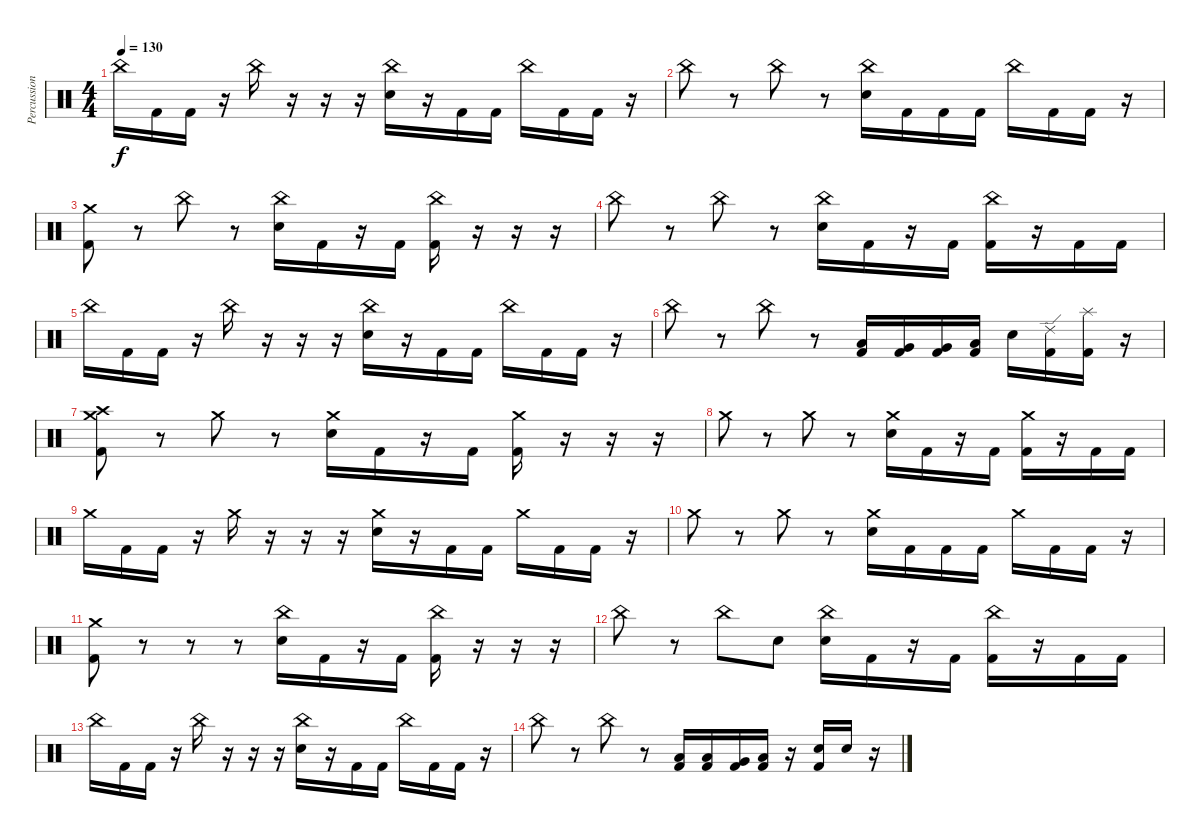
\track ("Percussion" "Percussion") {instrument percussion}
\staff {score}
\articulation defaults
\ts (4 4)
\tempo 130
\clef neutral
\ks c "China (hit)".16{dy f} "Kick (hit) 2".16 "Kick (hit) 2".16
r.16 "China (hit)".16 r.16 r.16 r.16 ("China (hit)" "Electric Snare (hit)").16 r.16 "Kick (hit) 2".16 "Kick (hit) 2".16 "China (hit)".16 "Kick (hit) 2".16 "Kick (hit) 2".16 r.16 |
"China (hit)".8 r.8 "China (hit)".8 r.8 ("China (hit)" "Electric Snare (hit)").16 "Kick (hit) 2".16 "Kick (hit) 2".16 "Kick (hit) 2".16 "China (hit)".16 "Kick (hit) 2".16 "Kick (hit) 2".16 r.16 |
("Crash medium (hit)" "Kick (hit) 2").8 r.8 "China (hit)".8 r.8 ("China (hit)" "Electric Snare (hit)").16 "Kick (hit) 2".16 r.16 "Kick (hit) 2".16 ("China (hit)" "Kick (hit) 2").16 r.16 r.16 r.16 |
"China (hit)".8 r.8 "China (hit)".8 r.8 ("China (hit)" "Electric Snare (hit)").16 "Kick (hit) 2".16 r.16 "Kick (hit) 2".16 ("China (hit)" "Kick (hit) 2").16 r.16 "Kick (hit) 2".16 "Kick (hit) 2".16 |
"China (hit)".16 "Kick (hit) 2".16 "Kick (hit) 2".16 r.16 "China (hit)".16 r.16 r.16 r.16 ("China (hit)" "Electric Snare (hit)").16 r.16 "Kick (hit) 2".16 "Kick (hit) 2".16 "China (hit)".16 "Kick (hit) 2".16 "Kick (hit) 2".16 r.16 |
"China (hit)".8 r.8 "China (hit)".8 r.8 ("Low Tom (hit)" "Kick (hit) 2").16 ("Very Low Tom (hit)" "Kick (hit) 2").16 ("Very Low Tom (hit)" "Kick (hit) 2").16 ("Low Floor Tom (hit)" "Kick (hit) 2").16 "Electric Snare (hit)".16 ("Ride (edge) 2" "Kick (hit) 2").16 ("Splash (hit)" "Kick (hit) 2").16 r.16 |
("Crash high (hit)" "Crash medium (hit)" "Kick (hit) 2").8 r.8 "Crash medium (hit)".8 r.8 ("Crash medium (hit)" "Electric Snare (hit)").16 "Kick (hit) 2".16 r.16 "Kick (hit) 2".16 ("Crash medium (hit)" "Kick (hit) 2").16 r.16 r.16 r.16 |
"Crash medium (hit)".8 r.8 "Crash medium (hit)".8 r.8 ("Crash medium (hit)" "Electric Snare (hit)").16 "Kick (hit) 2".16 r.16 "Kick (hit) 2".16 ("Crash medium (hit)" "Kick (hit) 2").16 r.16 "Kick (hit) 2".16 "Kick (hit) 2".16 |
"Crash medium (hit)".16 "Kick (hit) 2".16 "Kick (hit) 2".16 r.16 "Crash medium (hit)".16 r.16 r.16 r.16 ("Crash medium (hit)" "Electric Snare (hit)").16 r.16 "Kick (hit) 2".16 "Kick (hit) 2".16 "Crash medium (hit)".16 "Kick (hit) 2".16 "Kick (hit) 2".16 r.16 |
"Crash medium (hit)".8 r.8 "Crash medium (hit)".8 r.8 ("Crash medium (hit)" "Electric Snare (hit)").16 "Kick (hit) 2".16 "Kick (hit) 2".16 "Kick (hit) 2".16 "Crash medium (hit)".16 "Kick (hit) 2".16 "Kick (hit) 2".16 r.16 |
("Crash medium (hit)" "Kick (hit) 2").8 r.8 r.8 r.8 ("China (hit)" "Electric Snare (hit)").16 "Kick (hit) 2".16 r.16 "Kick (hit) 2".16 ("China (hit)" "Kick (hit) 2").16 r.16 r.16 r.16 |
"China (hit)".8 r.8 "China (hit)".8 "Electric Snare (hit)".8 ("China (hit)" "Electric Snare (hit)").16 "Kick (hit) 2".16 r.16 "Kick (hit) 2".16 ("China (hit)" "Kick (hit) 2").16 r.16 "Kick (hit) 2".16 "Kick (hit) 2".16 |
"China (hit)".16 "Kick (hit) 2".16 "Kick (hit) 2".16 r.16 "China (hit)".16 r.16 r.16 r.16 ("China (hit)" "Electric Snare (hit)").16 r.16 "Kick (hit) 2".16 "Kick (hit) 2".16 "China (hit)".16 "Kick (hit) 2".16 "Kick (hit) 2".16 r.16 |
"China (hit)".8 r.8 "China (hit)".8 r.8 ("Low Tom (hit)" "Kick (hit) 2").16 ("Low Tom (hit)" "Kick (hit) 2").16 ("Very Low Tom (hit)" "Kick (hit) 2").16 ("Low Floor Tom (hit)" "Kick (hit) 2").16 r.16 ("Electric Snare (hit)" "Kick (hit) 2").16 "Electric Snare (hit)".16 r.16
